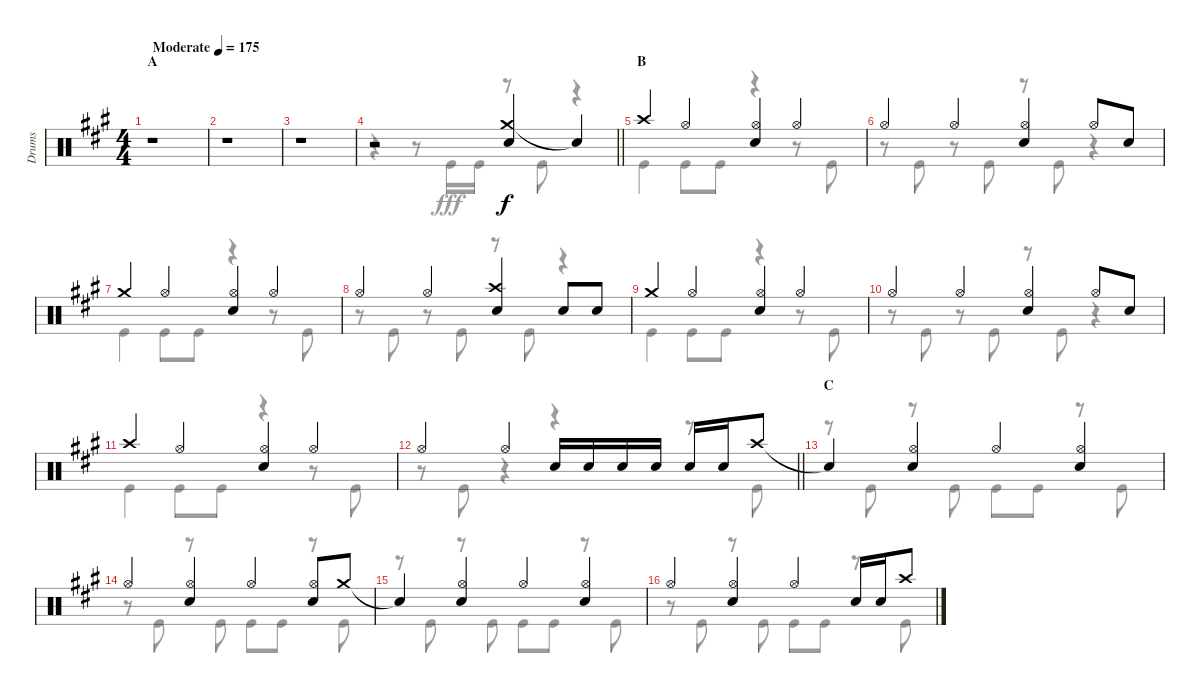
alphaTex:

\track ("Drums" "Drums") {instrument percussion}
\staff {score}
\articulation defaults
\voice
\ts (4 4)
\section ("" "A")
\tempo (175 "Moderate")
\clef neutral
\ks a
r.1{dy f} |
r.1 |
r.1 |
\barLineRight lightlight
r.2 ("Crash medium (hit)" "Snare (hit) 2").4 "Snare (hit)"{t}.4 |
\section ("" "B")
"Crash high (hit)".4 "Hi-Hat (open)".4 ("Hi-Hat (open)" "Snare (hit) 2").4 "Hi-Hat (open)".4 |
"Hi-Hat (open)".4 "Hi-Hat (open)".4 ("Hi-Hat (open)" "Snare (hit) 2").4 "Hi-Hat (open)".8 "Snare (hit) 2".8 |
"Crash medium (hit)".4 "Hi-Hat (open)".4 ("Hi-Hat (open)" "Snare (hit) 2").4 "Hi-Hat (open)".4 |
"Hi-Hat (open)".4 "Hi-Hat (open)".4 ("Crash high (hit)" "Snare (hit) 2").4 "Snare (hit) 2".8 "Snare (hit) 2".8 |
"Crash medium (hit)".4 "Hi-Hat (open)".4 ("Hi-Hat (open)" "Snare (hit) 2").4 "Hi-Hat (open)".4 |
"Hi-Hat (open)".4 "Hi-Hat (open)".4 ("Hi-Hat (open)" "Snare (hit) 2").4 "Hi-Hat (open)".8 "Snare (hit) 2".8 |
"Crash high (hit)".4 "Hi-Hat (open)".4 ("Hi-Hat (open)" "Snare (hit) 2").4 "Hi-Hat (open)".4 |
\barLineRight lightlight "Hi-Hat (open)".4 "Hi-Hat (open)".4 "Snare (hit) 2".16 "Snare (hit) 2".16 "Snare (hit) 2".16 "Snare (hit) 2".16 "Snare (hit) 2".16 "Snare (hit) 2".16 "Crash high (hit)".8
|
\section ("" "C")
"Snare (hit)"{t}.4 ("Hi-Hat (open)" "Snare (hit) 2").4 "Hi-Hat (open)".4 ("Hi-Hat (open)" "Snare (hit) 2").4 |
"Hi-Hat (open)".4 ("Hi-Hat (open)" "Snare (hit) 2").4 "Hi-Hat (open)".4 ("Hi-Hat (open)" "Snare (hit) 2").8 "Crash medium (hit)".8 |
"Snare (hit)"{t}.4 ("Hi-Hat (open)" "Snare (hit) 2").4 "Hi-Hat (open)".4 ("Hi-Hat (open)" "Snare (hit) 2").4 |
"Hi-Hat (open)".4 ("Hi-Hat (open)" "Snare (hit) 2").4 "Hi-Hat (open)".4 "Snare (hit) 2".16 "Snare (hit) 2".16 "Crash high (hit)".8
\voice
\clef neutral
\ottava regular
\simile none
\ks a
r.1{dy fff} |
r.1 |
r.1 |
\barLineRight lightlight
r.4 r.8 "Kick (hit)".16 "Kick (hit)".16 r.8 "Kick (hit)".8 r.4 |
"Kick (hit)".4 "Kick (hit)".8 "Kick (hit)".8 r.4 r.8 "Kick (hit)".8 |
r.8 "Kick (hit)".8 r.8 "Kick (hit)".8 r.8 "Kick (hit)".8 r.4 |
"Kick (hit)".4 "Kick (hit)".8 "Kick (hit)".8 r.4 r.8 "Kick (hit)".8 |
r.8 "Kick (hit)".8 r.8 "Kick (hit)".8 r.8 "Kick (hit)".8 r.4 |
"Kick (hit)".4 "Kick (hit)".8 "Kick (hit)".8 r.4 r.8 "Kick (hit)".8 |
r.8 "Kick (hit)".8 r.8 "Kick (hit)".8 r.8 "Kick (hit)".8 r.4 |
"Kick (hit)".4 "Kick (hit)".8 "Kick (hit)".8 r.4 r.8 "Kick (hit)".8 |
\barLineRight lightlight
r.8 "Kick (hit)".8 r.4 r.4 r.8 "Kick (hit)".8 |
r.8 "Kick (hit)".8 r.8 "Kick (hit)".8 "Kick (hit)".8 "Kick (hit)".8 r.8 "Kick (hit)".8 |
r.8 "Kick (hit)".8 r.8 "Kick (hit)".8 "Kick (hit)".8 "Kick (hit)".8 r.8 "Kick (hit)".8 |
r.8 "Kick (hit)".8 r.8 "Kick (hit)".8 "Kick (hit)".8 "Kick (hit)".8 r.8 "Kick (hit)".8 |
r.8 "Kick (hit)".8 r.8 "Kick (hit)".8 "Kick (hit)".8 "Kick (hit)".8 r.8 "Kick (hit)".8
